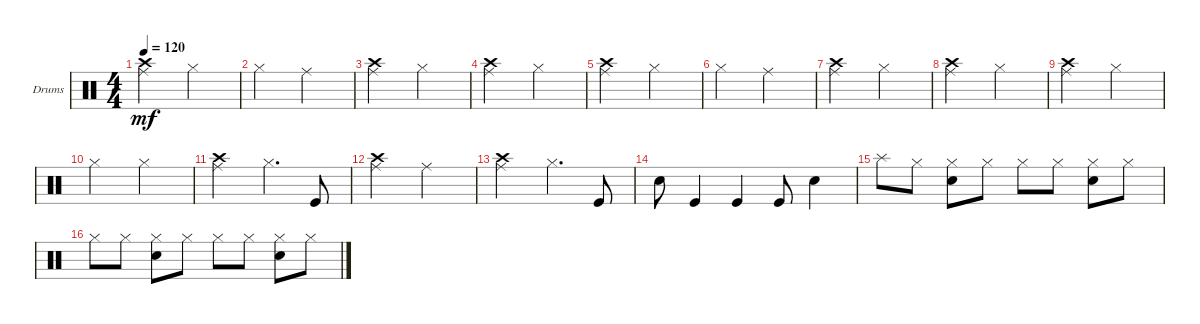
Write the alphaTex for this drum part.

\defaultSystemsLayout 4
\bracketExtendMode groupsimilarinstruments
\firstSystemTrackNameOrientation horizontal
\otherSystemsTrackNameOrientation horizontal
\track ("Drums" "Drums") {instrument percussion}
\staff {score}
\articulation defaults
\ts (4 4)
\tempo 120
\clef neutral
\scale
0.333333
\ks c
("Crash high (hit)" "Ride (middle)").2{dy mf} "Hi-Hat (closed)".2 |
\scale
0.333333 "Hi-Hat (closed)".2 "Ride (middle)".2 |
\scale
0.333333 ("Crash high (hit)" "Ride (middle)").2 "Hi-Hat (closed)".2 |
\scale
0.333333 ("Crash high (hit)" "Ride (middle)").2 "Hi-Hat (closed)".2 |
\scale
0.333333 ("Crash high (hit)" "Ride (middle)").2 "Hi-Hat (closed)".2 |
\scale
0.333333 "Hi-Hat (closed)".2 "Ride (middle)".2 |
\scale
0.333333 ("Crash high (hit)" "Ride (middle)").2 "Hi-Hat (closed)".2 |
\scale
0.333333 ("Crash high (hit)" "Ride (middle)").2 "Hi-Hat (closed)".2 |
\scale
0.333333 ("Crash high (hit)" "Ride (middle)").2 "Hi-Hat (closed)".2 |
\scale
0.333333 "Hi-Hat (closed)".2 "Hi-Hat (closed)".2 |
\scale
0.333333 ("Crash high (hit)" "Ride (middle)").2 "Hi-Hat (closed)".4{d} "Kick (hit)".8 |
\scale
0.333333 ("Crash high (hit)" "Ride (middle)").2 "Ride (middle)".2 |
\scale
0.333333 ("Crash high (hit)" "Ride (middle)").2 "Hi-Hat (closed)".4{d} "Kick (hit)".8 |
\scale
0.333333 "Snare (hit) 2".8 "Kick (hit)".4 "Kick (hit)".4 "Kick (hit)".8 "Snare (hit) 2".4 |
\scale
0.333333 "Splash (hit)".8 "Hi-Hat (closed)".8 ("Hi-Hat (closed)" "Snare (hit) 2").8 "Hi-Hat (closed)".8 "Hi-Hat (closed)".8 "Hi-Hat (closed)".8 ("Hi-Hat (closed)" "Snare (hit) 2").8 "Hi-Hat (closed)".8 |
\scale
0.333333 "Hi-Hat (closed)".8 "Hi-Hat (closed)".8 ("Hi-Hat (closed)" "Snare (hit) 2").8 "Hi-Hat (closed)".8 "Hi-Hat (closed)".8 "Hi-Hat (closed)".8 ("Hi-Hat (closed)" "Snare (hit) 2").8 "Hi-Hat (closed)".8
